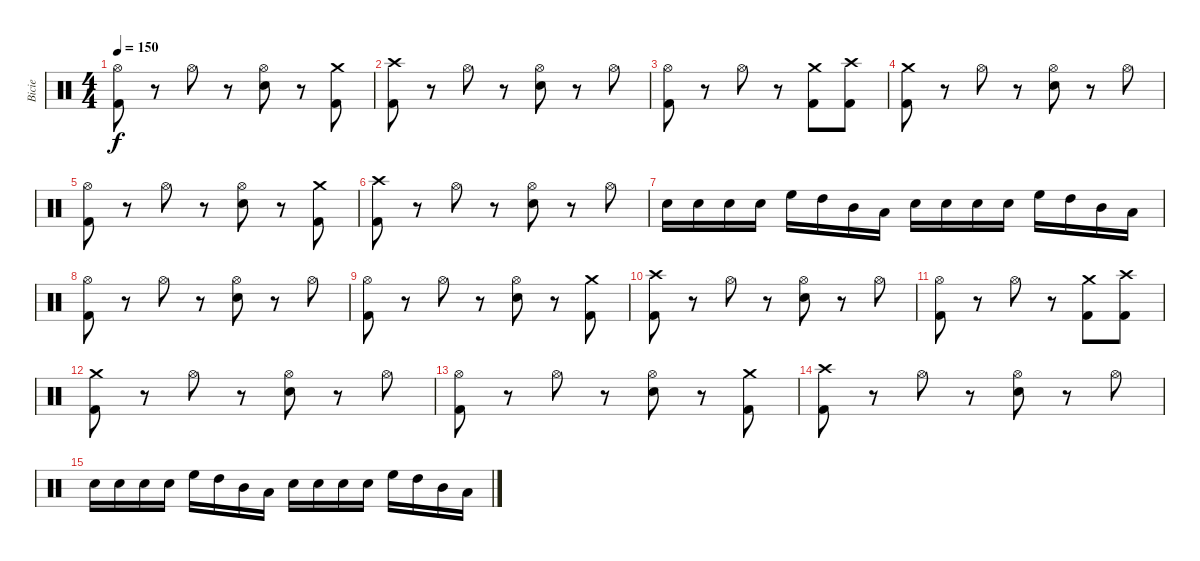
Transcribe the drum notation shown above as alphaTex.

\track ("Bicie" "Bicie") {instrument percussion}
\staff {score}
\articulation defaults
\ts (4 4)
\tempo 150
\clef neutral
\ks c
("Hi-Hat (open)" "Kick (hit) 2").8{dy f} r.8 "Hi-Hat (open)".8 r.8 ("Hi-Hat (open)" "Snare (hit) 2").8 r.8 ("Crash medium (hit)" "Kick (hit) 2").8 |
("Crash high (hit)" "Kick (hit) 2").8 r.8 "Hi-Hat (open)".8 r.8 ("Hi-Hat (open)" "Snare (hit) 2").8 r.8 "Hi-Hat (open)".8 |
("Hi-Hat (open)" "Kick (hit) 2").8 r.8 "Hi-Hat (open)".8 r.8 ("Crash medium (hit)" "Kick (hit) 2").8 ("Crash high (hit)" "Kick (hit) 2").8 |
("Crash medium (hit)" "Kick (hit) 2").8 r.8 "Hi-Hat (open)".8 r.8 ("Hi-Hat (open)" "Snare (hit) 2").8 r.8 "Hi-Hat (open)".8 |
("Hi-Hat (open)" "Kick (hit) 2").8 r.8 "Hi-Hat (open)".8 r.8 ("Hi-Hat (open)" "Snare (hit) 2").8 r.8 ("Crash medium (hit)" "Kick (hit) 2").8 |
("Crash high (hit)" "Kick (hit) 2").8 r.8 "Hi-Hat (open)".8 r.8 ("Hi-Hat (open)" "Snare (hit) 2").8 r.8 "Hi-Hat (open)".8 |
"Snare (hit) 2".16 "Snare (hit) 2".16 "Snare (hit) 2".16 "Snare (hit) 2".16 "High Floor Tom (hit)".16 "High Tom (hit)".16 "Mid Tom (hit)".16 "Low Tom (hit)".16 "Snare (hit) 2".16 "Snare (hit) 2".16 "Snare (hit) 2".16 "Snare (hit) 2".16 "High Floor Tom (hit)".16 "High Tom (hit)".16 "Mid Tom (hit)".16 "Low Tom (hit)".16 |
("Hi-Hat (open)" "Kick (hit) 2").8 r.8 "Hi-Hat (open)".8 r.8 ("Hi-Hat (open)" "Snare (hit) 2").8 r.8 "Hi-Hat (open)".8 |
("Hi-Hat (open)" "Kick (hit) 2").8 r.8 "Hi-Hat (open)".8 r.8 ("Hi-Hat (open)" "Snare (hit) 2").8 r.8 ("Crash medium (hit)" "Kick (hit) 2").8 |
("Crash high (hit)" "Kick (hit) 2").8 r.8 "Hi-Hat (open)".8 r.8 ("Hi-Hat (open)" "Snare (hit) 2").8 r.8 "Hi-Hat (open)".8 |
("Hi-Hat (open)" "Kick (hit) 2").8 r.8 "Hi-Hat (open)".8 r.8 ("Crash medium (hit)" "Kick (hit) 2").8 ("Crash high (hit)" "Kick (hit) 2").8 |
("Crash medium (hit)" "Kick (hit) 2").8 r.8 "Hi-Hat (open)".8 r.8 ("Hi-Hat (open)" "Snare (hit) 2").8 r.8 "Hi-Hat (open)".8 |
("Hi-Hat (open)" "Kick (hit) 2").8 r.8 "Hi-Hat (open)".8 r.8 ("Hi-Hat (open)" "Snare (hit) 2").8 r.8 ("Crash medium (hit)" "Kick (hit) 2").8 |
("Crash high (hit)" "Kick (hit) 2").8 r.8 "Hi-Hat (open)".8 r.8 ("Hi-Hat (open)" "Snare (hit) 2").8 r.8 "Hi-Hat (open)".8 |
"Snare (hit) 2".16 "Snare (hit) 2".16 "Snare (hit) 2".16 "Snare (hit) 2".16 "High Floor Tom (hit)".16 "High Tom (hit)".16 "Mid Tom (hit)".16 "Low Tom (hit)".16 "Snare (hit) 2".16 "Snare (hit) 2".16 "Snare (hit) 2".16 "Snare (hit) 2".16 "High Floor Tom (hit)".16 "High Tom (hit)".16 "Mid Tom (hit)".16 "Low Tom (hit)".16
